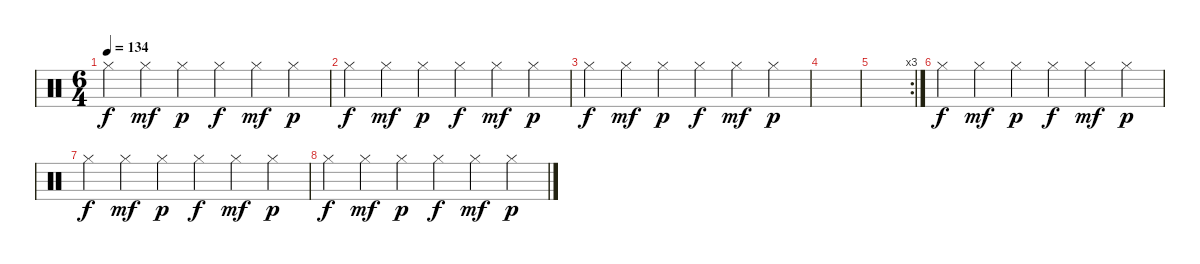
\track "" {instrument percussion}
\staff {score}
\articulation defaults
\ts (6 4)
\tempo 134
\clef neutral
\ks c "Hi-Hat (closed)".4{dy f} "Hi-Hat (closed)".4{dy mf} "Hi-Hat (closed)".4{dy p} "Hi-Hat (closed)".4{dy f} "Hi-Hat (closed)".4{dy mf} "Hi-Hat (closed)".4{dy p}
|
"Hi-Hat (closed)".4{dy f} "Hi-Hat (closed)".4{dy mf} "Hi-Hat (closed)".4{dy p} "Hi-Hat (closed)".4{dy f} "Hi-Hat (closed)".4{dy mf} "Hi-Hat (closed)".4{dy p} |
"Hi-Hat (closed)".4{dy f} "Hi-Hat (closed)".4{dy mf} "Hi-Hat (closed)".4{dy p} "Hi-Hat (closed)".4{dy f} "Hi-Hat (closed)".4{dy mf} "Hi-Hat (closed)".4{dy p} |
|
\rc 3
|
"Hi-Hat (closed)".4{dy f} "Hi-Hat (closed)".4{dy mf} "Hi-Hat (closed)".4{dy p} "Hi-Hat (closed)".4{dy f} "Hi-Hat (closed)".4{dy mf} "Hi-Hat (closed)".4{dy p} |
"Hi-Hat (closed)".4{dy f volume 5} "Hi-Hat (closed)".4{dy mf} "Hi-Hat (closed)".4{dy p} "Hi-Hat (closed)".4{dy f} "Hi-Hat (closed)".4{dy mf} "Hi-Hat (closed)".4{dy p} |
"Hi-Hat (closed)".4{dy f volume 0} "Hi-Hat (closed)".4{dy mf} "Hi-Hat (closed)".4{dy p} "Hi-Hat (closed)".4{dy f} "Hi-Hat (closed)".4{dy mf} "Hi-Hat (closed)".4{dy p}
